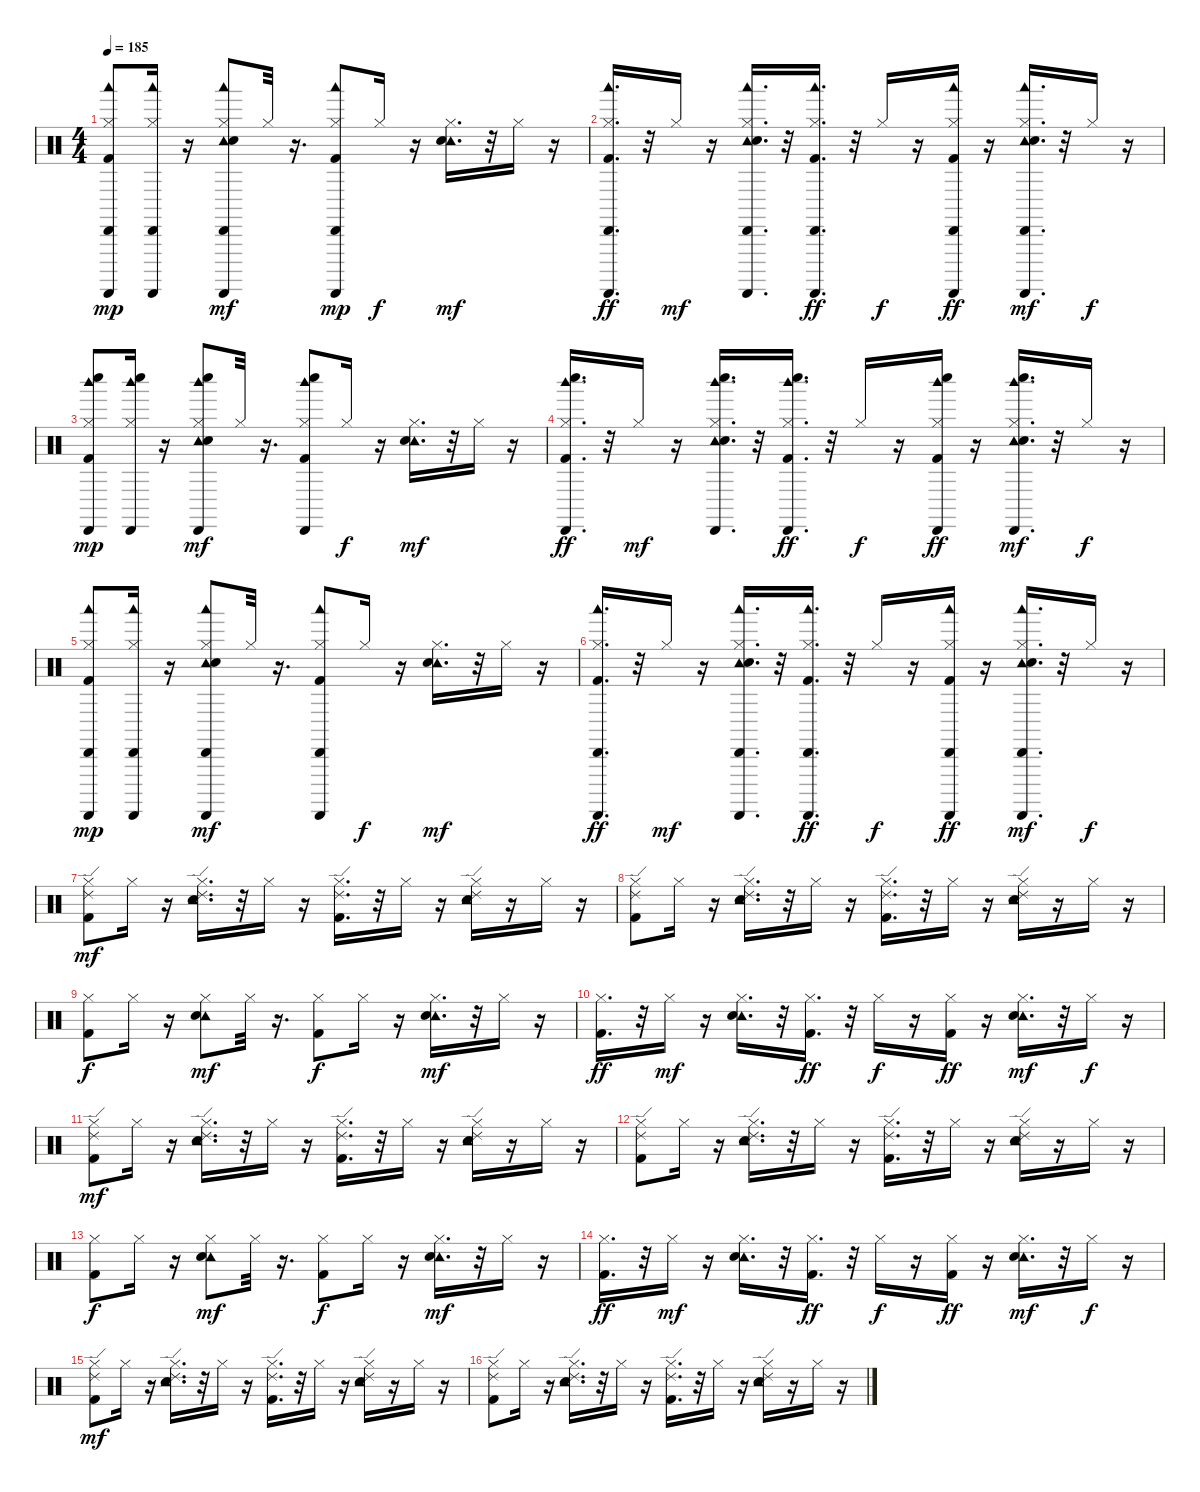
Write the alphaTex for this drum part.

\track "" {instrument percussion}
\staff {score}
\articulation defaults
\ts (4 4)
\tempo 185
\clef neutral
\ks c
("Cabasa (hit)" "Woodblock low (hit)" "Guiro (scrap-return)" "Hi-Hat (closed)" "Kick (hit) 2").8{dy mp} ("Cabasa (hit)" "Guiro (scrap-return)" "Woodblock low (hit)" "Hi-Hat (closed)").16 r.16 ("Cabasa (hit)" "Woodblock low (hit)" "Guiro (scrap-return)" "Tambourine (hit)" "Hi-Hat (closed)" "Snare (hit) 2").8{dy mf} "Hi-Hat (closed)".32 r.16{d} ("Woodblock low (hit)" "Cabasa (hit)" "Guiro (scrap-return)" "Hi-Hat (closed)" "Kick (hit) 2").8{dy mp} "Hi-Hat (closed)".16{dy f} r.16 ("Tambourine (hit)" "Hi-Hat (closed)" "Snare (hit) 2").16{d dy mf} r.32 "Hi-Hat (closed)".16 r.16 |
("Cabasa (hit)" "Guiro (scrap-return)" "Woodblock low (hit)" "Hi-Hat (closed)" "Kick (hit) 2").16{d dy ff} r.32 "Hi-Hat (closed)".16{dy mf} r.16 ("Guiro (scrap-return)" "Cabasa (hit)" "Woodblock low (hit)" "Tambourine (hit)" "Hi-Hat (closed)" "Snare (hit) 2").16{d} r.32 ("Cabasa (hit)" "Woodblock low (hit)" "Guiro (scrap-return)" "Hi-Hat (closed)" "Kick (hit) 2").16{d dy ff} r.32 "Hi-Hat (closed)".16{dy f} r.16 ("Cabasa (hit)" "Woodblock low (hit)" "Guiro (scrap-return)" "Hi-Hat (closed)" "Kick (hit) 2").16{dy ff} r.16 ("Woodblock low (hit)" "Cabasa (hit)" "Guiro (scrap-return)" "Tambourine (hit)" "Hi-Hat (closed)" "Snare (hit) 2").16{d dy mf} r.32 "Hi-Hat (closed)".16{dy f} r.16 |
("Whistle low (hit)" "Woodblock high (hit)" "Cabasa (hit)" "Hi-Hat (closed)" "Kick (hit) 2").8{dy mp} ("Cabasa (hit)" "Woodblock high (hit)" "Whistle low (hit)" "Hi-Hat (closed)").16 r.16 ("Whistle low (hit)" "Cabasa (hit)" "Woodblock high (hit)" "Tambourine (hit)" "Hi-Hat (closed)" "Snare (hit) 2").8{dy mf} "Hi-Hat (closed)".32 r.16{d} ("Cabasa (hit)" "Woodblock high (hit)" "Whistle low (hit)" "Hi-Hat (closed)" "Kick (hit) 2").8 "Hi-Hat (closed)".16{dy f} r.16 ("Tambourine (hit)" "Hi-Hat (closed)" "Snare (hit) 2").16{d dy mf} r.32 "Hi-Hat (closed)".16 r.16 |
("Cabasa (hit)" "Whistle low (hit)" "Woodblock high (hit)" "Hi-Hat (closed)" "Kick (hit) 2").16{d dy ff} r.32 "Hi-Hat (closed)".16{dy mf} r.16 ("Whistle low (hit)" "Cabasa (hit)" "Woodblock high (hit)" "Tambourine (hit)" "Hi-Hat (closed)" "Snare (hit) 2").16{d} r.32 ("Whistle low (hit)" "Cabasa (hit)" "Woodblock high (hit)" "Hi-Hat (closed)" "Kick (hit) 2").16{d dy ff} r.32 "Hi-Hat (closed)".16{dy f} r.16 ("Cabasa (hit)" "Whistle low (hit)" "Woodblock high (hit)" "Hi-Hat (closed)" "Kick (hit) 2").16{dy ff} r.16 ("Cabasa (hit)" "Whistle low (hit)" "Woodblock high (hit)" "Tambourine (hit)" "Hi-Hat (closed)" "Snare (hit) 2").16{d dy mf} r.32 "Hi-Hat (closed)".16{dy f} r.16 |
("Cabasa (hit)" "Woodblock low (hit)" "Guiro (scrap-return)" "Hi-Hat (closed)" "Kick (hit) 2").8{dy mp} ("Woodblock low (hit)" "Cabasa (hit)" "Guiro (scrap-return)" "Hi-Hat (closed)").16 r.16 ("Woodblock low (hit)" "Guiro (scrap-return)" "Cabasa (hit)" "Tambourine (hit)" "Hi-Hat (closed)" "Snare (hit) 2").8{dy mf} "Hi-Hat (closed)".32 r.16{d} ("Woodblock low (hit)" "Guiro (scrap-return)" "Cabasa (hit)" "Hi-Hat (closed)" "Kick (hit) 2").8 "Hi-Hat (closed)".16{dy f} r.16 ("Tambourine (hit)" "Hi-Hat (closed)" "Snare (hit) 2").16{d dy mf} r.32 "Hi-Hat (closed)".16 r.16 |
("Cabasa (hit)" "Woodblock low (hit)" "Guiro (scrap-return)" "Hi-Hat (closed)" "Kick (hit) 2").16{d dy ff} r.32 "Hi-Hat (closed)".16{dy mf} r.16 ("Cabasa (hit)" "Woodblock low (hit)" "Guiro (scrap-return)" "Tambourine (hit)" "Hi-Hat (closed)" "Snare (hit) 2").16{d} r.32 ("Cabasa (hit)" "Woodblock low (hit)" "Guiro (scrap-return)" "Hi-Hat (closed)" "Kick (hit) 2").16{d dy ff} r.32 "Hi-Hat (closed)".16{dy f} r.16 ("Cabasa (hit)" "Woodblock low (hit)" "Guiro (scrap-return)" "Hi-Hat (closed)" "Kick (hit) 2").16{dy ff} r.16 ("Woodblock low (hit)" "Cabasa (hit)" "Guiro (scrap-return)" "Tambourine (hit)" "Hi-Hat (closed)" "Snare (hit) 2").16{d dy mf} r.32 "Hi-Hat (closed)".16{dy f} r.16 |
("Ride (edge) 2" "Hi-Hat (closed)" "Kick (hit) 2").8{dy mf} "Hi-Hat (closed)".16 r.16 ("Ride (edge) 2" "Hi-Hat (closed)" "Tambourine (hit)" "Snare (hit) 2").16{d} r.32 "Hi-Hat (closed)".16 r.16 ("Ride (edge) 2" "Hi-Hat (closed)" "Kick (hit) 2").16{d} r.32 "Hi-Hat (closed)".16 r.16 ("Ride (edge) 2" "Hi-Hat (closed)" "Tambourine (hit)" "Snare (hit) 2").16 r.16 "Hi-Hat (closed)".16 r.16 |
("Ride (edge) 2" "Hi-Hat (closed)" "Kick (hit) 2").8 "Hi-Hat (closed)".16 r.16 ("Ride (edge) 2" "Hi-Hat (closed)" "Tambourine (hit)" "Snare (hit) 2").16{d} r.32 "Hi-Hat (closed)".16 r.16 ("Ride (edge) 2" "Hi-Hat (closed)" "Kick (hit) 2").16{d} r.32 "Hi-Hat (closed)".16 r.16 ("Ride (edge) 2" "Hi-Hat (closed)" "Tambourine (hit)" "Snare (hit) 2").16 r.16 "Hi-Hat (closed)".16 r.16 |
("Hi-Hat (closed)" "Kick (hit) 2").8{dy f} "Hi-Hat (closed)".16 r.16 ("Tambourine (hit)" "Hi-Hat (closed)" "Snare (hit) 2").8{dy mf} "Hi-Hat (closed)".32 r.16{d} ("Hi-Hat (closed)" "Kick (hit) 2").8{dy f} "Hi-Hat (closed)".16 r.16 ("Tambourine (hit)" "Hi-Hat (closed)" "Snare (hit) 2").16{d dy mf} r.32 "Hi-Hat (closed)".16 r.16 |
("Hi-Hat (closed)" "Kick (hit) 2").16{d dy ff} r.32 "Hi-Hat (closed)".16{dy mf} r.16 ("Tambourine (hit)" "Hi-Hat (closed)" "Snare (hit) 2").16{d} r.32 ("Hi-Hat (closed)" "Kick (hit) 2").16{d dy ff} r.32 "Hi-Hat (closed)".16{dy f} r.16 ("Hi-Hat (closed)" "Kick (hit) 2").16{dy ff} r.16 ("Tambourine (hit)" "Hi-Hat (closed)" "Snare (hit) 2").16{d dy mf} r.32 "Hi-Hat (closed)".16{dy f} r.16 |
("Ride (edge) 2" "Hi-Hat (closed)" "Kick (hit) 2").8{dy mf} "Hi-Hat (closed)".16 r.16 ("Ride (edge) 2" "Hi-Hat (closed)" "Tambourine (hit)" "Snare (hit) 2").16{d} r.32 "Hi-Hat (closed)".16 r.16 ("Ride (edge) 2" "Hi-Hat (closed)" "Kick (hit) 2").16{d} r.32 "Hi-Hat (closed)".16 r.16 ("Ride (edge) 2" "Hi-Hat (closed)" "Tambourine (hit)" "Snare (hit) 2").16 r.16 "Hi-Hat (closed)".16 r.16 |
("Ride (edge) 2" "Hi-Hat (closed)" "Kick (hit) 2").8 "Hi-Hat (closed)".16 r.16 ("Ride (edge) 2" "Hi-Hat (closed)" "Tambourine (hit)" "Snare (hit) 2").16{d} r.32 "Hi-Hat (closed)".16 r.16 ("Ride (edge) 2" "Hi-Hat (closed)" "Kick (hit) 2").16{d} r.32 "Hi-Hat (closed)".16 r.16 ("Ride (edge) 2" "Hi-Hat (closed)" "Tambourine (hit)" "Snare (hit) 2").16 r.16 "Hi-Hat (closed)".16 r.16 |
("Hi-Hat (closed)" "Kick (hit) 2").8{dy f} "Hi-Hat (closed)".16 r.16 ("Tambourine (hit)" "Hi-Hat (closed)" "Snare (hit) 2").8{dy mf} "Hi-Hat (closed)".32 r.16{d} ("Hi-Hat (closed)" "Kick (hit) 2").8{dy f} "Hi-Hat (closed)".16 r.16 ("Tambourine (hit)" "Hi-Hat (closed)" "Snare (hit) 2").16{d dy mf} r.32 "Hi-Hat (closed)".16 r.16 |
("Hi-Hat (closed)" "Kick (hit) 2").16{d dy ff} r.32 "Hi-Hat (closed)".16{dy mf} r.16 ("Tambourine (hit)" "Hi-Hat (closed)" "Snare (hit) 2").16{d} r.32 ("Hi-Hat (closed)" "Kick (hit) 2").16{d dy ff} r.32 "Hi-Hat (closed)".16{dy f} r.16 ("Hi-Hat (closed)" "Kick (hit) 2").16{dy ff} r.16 ("Tambourine (hit)" "Hi-Hat (closed)" "Snare (hit) 2").16{d dy mf} r.32 "Hi-Hat (closed)".16{dy f} r.16 |
("Ride (edge) 2" "Hi-Hat (closed)" "Kick (hit) 2").8{dy mf} "Hi-Hat (closed)".16 r.16 ("Ride (edge) 2" "Hi-Hat (closed)" "Tambourine (hit)" "Snare (hit) 2").16{d} r.32 "Hi-Hat (closed)".16 r.16 ("Ride (edge) 2" "Hi-Hat (closed)" "Kick (hit) 2").16{d} r.32 "Hi-Hat (closed)".16 r.16 ("Ride (edge) 2" "Hi-Hat (closed)" "Tambourine (hit)" "Snare (hit) 2").16 r.16 "Hi-Hat (closed)".16 r.16 |
("Ride (edge) 2" "Hi-Hat (closed)" "Kick (hit) 2").8 "Hi-Hat (closed)".16 r.16 ("Ride (edge) 2" "Hi-Hat (closed)" "Tambourine (hit)" "Snare (hit) 2").16{d} r.32 "Hi-Hat (closed)".16 r.16 ("Ride (edge) 2" "Hi-Hat (closed)" "Kick (hit) 2").16{d} r.32 "Hi-Hat (closed)".16 r.16 ("Ride (edge) 2" "Hi-Hat (closed)" "Tambourine (hit)" "Snare (hit) 2").16 r.16 "Hi-Hat (closed)".16 r.16
